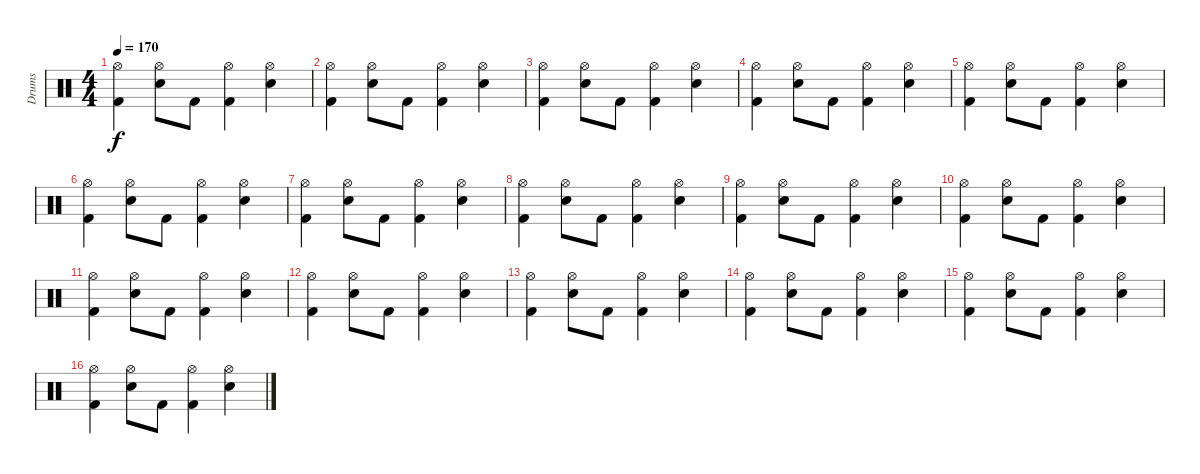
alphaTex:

\track ("Drums" "Drums") {instrument percussion}
\staff {score}
\articulation defaults
\ts (4 4)
\tempo 170
\clef neutral
\ks c
("Hi-Hat (open)" "Kick (hit) 2").4{dy f} ("Hi-Hat (open)" "Electric Snare (hit)").8 "Kick (hit) 2".8 ("Hi-Hat (open)" "Kick (hit) 2").4 ("Hi-Hat (open)" "Electric Snare (hit)").4 |
("Hi-Hat (open)" "Kick (hit) 2").4 ("Hi-Hat (open)" "Electric Snare (hit)").8 "Kick (hit) 2".8 ("Hi-Hat (open)" "Kick (hit) 2").4 ("Hi-Hat (open)" "Electric Snare (hit)").4 |
("Hi-Hat (open)" "Kick (hit) 2").4 ("Hi-Hat (open)" "Electric Snare (hit)").8 "Kick (hit) 2".8 ("Hi-Hat (open)" "Kick (hit) 2").4 ("Hi-Hat (open)" "Electric Snare (hit)").4 |
("Hi-Hat (open)" "Kick (hit) 2").4 ("Hi-Hat (open)" "Electric Snare (hit)").8 "Kick (hit) 2".8 ("Hi-Hat (open)" "Kick (hit) 2").4 ("Hi-Hat (open)" "Electric Snare (hit)").4 |
("Hi-Hat (open)" "Kick (hit) 2").4 ("Hi-Hat (open)" "Electric Snare (hit)").8 "Kick (hit) 2".8 ("Hi-Hat (open)" "Kick (hit) 2").4 ("Hi-Hat (open)" "Electric Snare (hit)").4 |
("Hi-Hat (open)" "Kick (hit) 2").4 ("Hi-Hat (open)" "Electric Snare (hit)").8 "Kick (hit) 2".8 ("Hi-Hat (open)" "Kick (hit) 2").4 ("Hi-Hat (open)" "Electric Snare (hit)").4 |
("Hi-Hat (open)" "Kick (hit) 2").4 ("Hi-Hat (open)" "Electric Snare (hit)").8 "Kick (hit) 2".8 ("Hi-Hat (open)" "Kick (hit) 2").4 ("Hi-Hat (open)" "Electric Snare (hit)").4 |
("Hi-Hat (open)" "Kick (hit) 2").4 ("Hi-Hat (open)" "Electric Snare (hit)").8 "Kick (hit) 2".8 ("Hi-Hat (open)" "Kick (hit) 2").4 ("Hi-Hat (open)" "Electric Snare (hit)").4 |
("Hi-Hat (open)" "Kick (hit) 2").4 ("Hi-Hat (open)" "Electric Snare (hit)").8 "Kick (hit) 2".8 ("Hi-Hat (open)" "Kick (hit) 2").4 ("Hi-Hat (open)" "Electric Snare (hit)").4 |
("Hi-Hat (open)" "Kick (hit) 2").4 ("Hi-Hat (open)" "Electric Snare (hit)").8 "Kick (hit) 2".8 ("Hi-Hat (open)" "Kick (hit) 2").4 ("Hi-Hat (open)" "Electric Snare (hit)").4 |
("Hi-Hat (open)" "Kick (hit) 2").4 ("Hi-Hat (open)" "Electric Snare (hit)").8 "Kick (hit) 2".8 ("Hi-Hat (open)" "Kick (hit) 2").4 ("Hi-Hat (open)" "Electric Snare (hit)").4 |
("Hi-Hat (open)" "Kick (hit) 2").4 ("Hi-Hat (open)" "Electric Snare (hit)").8 "Kick (hit) 2".8 ("Hi-Hat (open)" "Kick (hit) 2").4 ("Hi-Hat (open)" "Electric Snare (hit)").4 |
("Hi-Hat (open)" "Kick (hit) 2").4 ("Hi-Hat (open)" "Electric Snare (hit)").8 "Kick (hit) 2".8 ("Hi-Hat (open)" "Kick (hit) 2").4 ("Hi-Hat (open)" "Electric Snare (hit)").4 |
("Hi-Hat (open)" "Kick (hit) 2").4 ("Hi-Hat (open)" "Electric Snare (hit)").8 "Kick (hit) 2".8 ("Hi-Hat (open)" "Kick (hit) 2").4 ("Hi-Hat (open)" "Electric Snare (hit)").4 |
("Hi-Hat (open)" "Kick (hit) 2").4 ("Hi-Hat (open)" "Electric Snare (hit)").8 "Kick (hit) 2".8 ("Hi-Hat (open)" "Kick (hit) 2").4 ("Hi-Hat (open)" "Electric Snare (hit)").4 |
("Hi-Hat (open)" "Kick (hit) 2").4 ("Hi-Hat (open)" "Electric Snare (hit)").8 "Kick (hit) 2".8 ("Hi-Hat (open)" "Kick (hit) 2").4 ("Hi-Hat (open)" "Electric Snare (hit)").4
